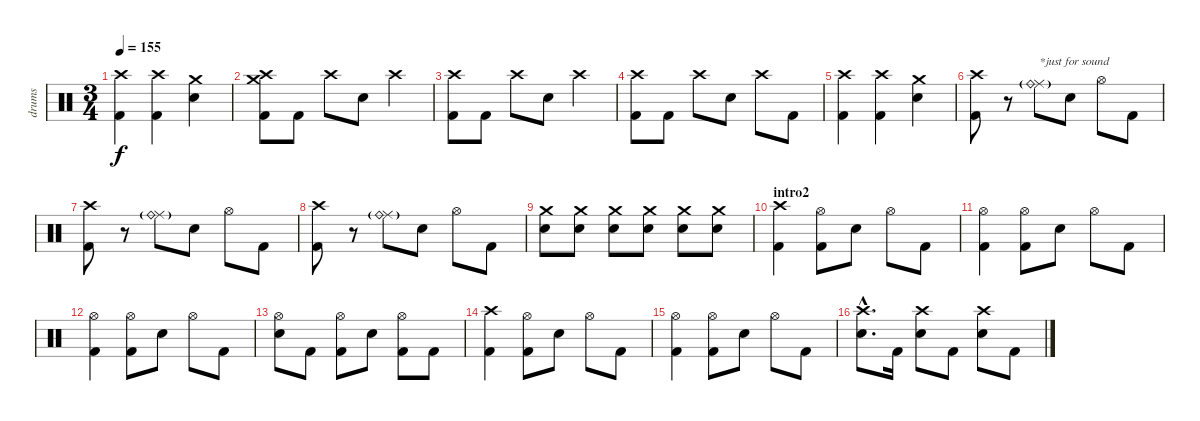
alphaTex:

\track ("drums" "drums") {instrument percussion}
\staff {score}
\articulation defaults
\ts (3 4)
\tempo 155
\clef neutral
\ks c
("Crash high (hit)" "Kick (hit) 2").4{dy f} ("Crash high (hit)" "Kick (hit) 2").4 ("Crash medium (hit)" "Electric Snare (hit)").4 |
("Crash high (hit)" "Crash medium (hit)" "Kick (hit) 2").8 "Kick (hit) 2".8 "Crash high (hit)".8 "Electric Snare (hit)".8 "Crash high (hit)".4 |
("Crash high (hit)" "Kick (hit) 2").8 "Kick (hit) 2".8 "Crash high (hit)".8 "Electric Snare (hit)".8 "Crash high (hit)".4 |
("Crash high (hit)" "Kick (hit) 2").8 "Kick (hit) 2".8 "Crash high (hit)".8 "Electric Snare (hit)".8 "Crash high (hit)".8 "Kick (hit) 2".8 |
("Crash high (hit)" "Kick (hit) 2").4 ("Crash high (hit)" "Kick (hit) 2").4 ("Crash medium (hit)" "Electric Snare (hit)").4 |
("Crash high (hit)" "Kick (hit) 2").8 r.8 ("Ride (middle)" "Ride (bell)"{g}).8{txt "*just for sound"} "Electric Snare (hit)".8 "Hi-Hat (open)".8 "Kick (hit) 2".8 |
("Crash high (hit)" "Kick (hit) 2").8 r.8 ("Ride (middle)" "Ride (bell)"{g}).8 "Electric Snare (hit)".8 "Hi-Hat (open)".8 "Kick (hit) 2".8 |
("Crash high (hit)" "Kick (hit) 2").8 r.8 ("Ride (middle)" "Ride (bell)"{g}).8 "Electric Snare (hit)".8 "Hi-Hat (open)".8 "Kick (hit) 2".8 |
("Crash medium (hit)" "Electric Snare (hit)").8 ("Crash medium (hit)" "Electric Snare (hit)").8 ("Crash medium (hit)" "Electric Snare (hit)").8 ("Crash medium (hit)" "Electric Snare (hit)").8 ("Crash medium (hit)" "Electric Snare (hit)").8 ("Crash medium (hit)" "Electric Snare (hit)").8 |
\section ("" "intro2")
("Crash high (hit)" "Kick (hit) 2").4 ("Hi-Hat (open)" "Kick (hit) 2").8 "Electric Snare (hit)".8 "Hi-Hat (open)".8 "Kick (hit) 2".8 |
("Hi-Hat (open)" "Kick (hit) 2").4 ("Hi-Hat (open)" "Kick (hit) 2").8 "Electric Snare (hit)".8 "Hi-Hat (open)".8 "Kick (hit) 2".8 |
("Hi-Hat (open)" "Kick (hit) 2").4 ("Hi-Hat (open)" "Kick (hit) 2").8 "Electric Snare (hit)".8 "Hi-Hat (open)".8 "Kick (hit) 2".8 |
("Hi-Hat (open)" "Electric Snare (hit)").8 "Kick (hit) 2".8 ("Hi-Hat (open)" "Kick (hit) 2").8 "Electric Snare (hit)".8 ("Hi-Hat (open)" "Kick (hit) 2").8 "Kick (hit) 2".8 |
("Crash high (hit)" "Kick (hit) 2").4 ("Hi-Hat (open)" "Kick (hit) 2").8 "Electric Snare (hit)".8 "Hi-Hat (open)".8 "Kick (hit) 2".8 |
("Hi-Hat (open)" "Kick (hit) 2").4 ("Hi-Hat (open)" "Kick (hit) 2").8 "Electric Snare (hit)".8 "Hi-Hat (open)".8 "Kick (hit) 2".8 |
("Crash high (hit)"{hac} "Electric Snare (hit)"{hac}).8{d} "Kick (hit) 2".16 ("Crash high (hit)" "Electric Snare (hit)").8 "Kick (hit) 2".8 ("Crash high (hit)" "Electric Snare (hit)").8 "Kick (hit) 2".8
